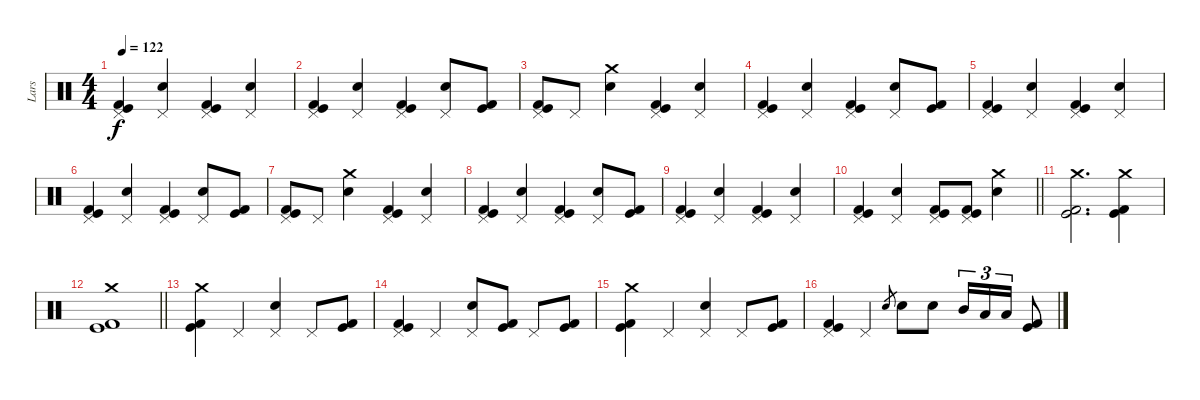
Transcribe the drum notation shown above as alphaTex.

\track ("Lars" "Lars") {instrument percussion}
\staff {score}
\articulation defaults
\ts (4 4)
\tempo 122
\clef neutral
\ks aminor
("Pedal Hi-Hat (hit)" "Kick (hit)" "Kick (hit) 2").4{dy f} ("Pedal Hi-Hat (hit)" "Electric Snare (hit)").4 ("Pedal Hi-Hat (hit)" "Kick (hit)" "Kick (hit) 2").4 ("Pedal Hi-Hat (hit)" "Electric Snare (hit)").4 |
("Pedal Hi-Hat (hit)" "Kick (hit)" "Kick (hit) 2").4 ("Pedal Hi-Hat (hit)" "Electric Snare (hit)").4 ("Pedal Hi-Hat (hit)" "Kick (hit)" "Kick (hit) 2").4 ("Pedal Hi-Hat (hit)" "Electric Snare (hit)").8 ("Kick (hit)" "Kick (hit) 2").8 |
("Pedal Hi-Hat (hit)" "Kick (hit)" "Kick (hit) 2").8 "Pedal Hi-Hat (hit)".8 ("Crash medium (hit)" "Electric Snare (hit)").4 ("Pedal Hi-Hat (hit)" "Kick (hit)" "Kick (hit) 2").4 ("Pedal Hi-Hat (hit)" "Electric Snare (hit)").4 |
("Pedal Hi-Hat (hit)" "Kick (hit)" "Kick (hit) 2").4 ("Pedal Hi-Hat (hit)" "Electric Snare (hit)").4 ("Pedal Hi-Hat (hit)" "Kick (hit)" "Kick (hit) 2").4 ("Pedal Hi-Hat (hit)" "Electric Snare (hit)").8 ("Kick (hit)" "Kick (hit) 2").8 |
("Pedal Hi-Hat (hit)" "Kick (hit)" "Kick (hit) 2").4 ("Pedal Hi-Hat (hit)" "Electric Snare (hit)").4 ("Pedal Hi-Hat (hit)" "Kick (hit)" "Kick (hit) 2").4 ("Pedal Hi-Hat (hit)" "Electric Snare (hit)").4 |
("Pedal Hi-Hat (hit)" "Kick (hit)" "Kick (hit) 2").4 ("Pedal Hi-Hat (hit)" "Electric Snare (hit)").4 ("Pedal Hi-Hat (hit)" "Kick (hit)" "Kick (hit) 2").4 ("Pedal Hi-Hat (hit)" "Electric Snare (hit)").8 ("Kick (hit)" "Kick (hit) 2").8 |
("Pedal Hi-Hat (hit)" "Kick (hit)" "Kick (hit) 2").8 "Pedal Hi-Hat (hit)".8 ("Crash medium (hit)" "Electric Snare (hit)").4 ("Pedal Hi-Hat (hit)" "Kick (hit)" "Kick (hit) 2").4 ("Pedal Hi-Hat (hit)" "Electric Snare (hit)").4 |
("Pedal Hi-Hat (hit)" "Kick (hit)" "Kick (hit) 2").4 ("Pedal Hi-Hat (hit)" "Electric Snare (hit)").4 ("Pedal Hi-Hat (hit)" "Kick (hit)" "Kick (hit) 2").4 ("Pedal Hi-Hat (hit)" "Electric Snare (hit)").8 ("Kick (hit)" "Kick (hit) 2").8 |
("Pedal Hi-Hat (hit)" "Kick (hit)" "Kick (hit) 2").4 ("Pedal Hi-Hat (hit)" "Electric Snare (hit)").4 ("Pedal Hi-Hat (hit)" "Kick (hit)" "Kick (hit) 2").4 ("Pedal Hi-Hat (hit)" "Electric Snare (hit)").4 |
\barLineRight lightlight
("Pedal Hi-Hat (hit)" "Kick (hit)" "Kick (hit) 2").4 ("Pedal Hi-Hat (hit)" "Electric Snare (hit)").4 ("Pedal Hi-Hat (hit)" "Kick (hit)" "Kick (hit) 2").8 ("Pedal Hi-Hat (hit)" "Kick (hit)" "Kick (hit) 2").8 ("Crash medium (hit)" "Electric Snare (hit)").4 |
("Crash medium (hit)" "Kick (hit)" "Kick (hit) 2").2{d} ("Crash medium (hit)" "Kick (hit)" "Kick (hit) 2").4 |
\barLineRight lightlight
("Crash medium (hit)" "Kick (hit)" "Kick (hit) 2").1 |
("Crash medium (hit)" "Kick (hit)" "Kick (hit) 2").4 "Pedal Hi-Hat (hit)".4 ("Pedal Hi-Hat (hit)" "Electric Snare (hit)").4 "Pedal Hi-Hat (hit)".8 ("Kick (hit)" "Kick (hit) 2").8 |
("Pedal Hi-Hat (hit)" "Kick (hit)" "Kick (hit) 2").4 "Pedal Hi-Hat (hit)".4 ("Pedal Hi-Hat (hit)" "Electric Snare (hit)").8 ("Kick (hit)" "Kick (hit) 2").8 "Pedal Hi-Hat (hit)".8 ("Kick (hit)" "Kick (hit) 2").8 |
("Crash medium (hit)" "Kick (hit)" "Kick (hit) 2").4 "Pedal Hi-Hat (hit)".4 ("Pedal Hi-Hat (hit)" "Electric Snare (hit)").4 "Pedal Hi-Hat (hit)".8 ("Kick (hit)" "Kick (hit) 2").8 |
("Pedal Hi-Hat (hit)" "Kick (hit)" "Kick (hit) 2").4 "Pedal Hi-Hat (hit)".4 "Electric Snare (hit)".8{gr} "Electric Snare (hit)".8 "Electric Snare (hit)".8 "Mid Tom (hit)".16{tu (3 2)} "Low Tom (hit)".16{tu (3 2)} "Low Tom (hit)".16{tu (3 2)} ("Kick (hit)" "Kick (hit) 2").8
